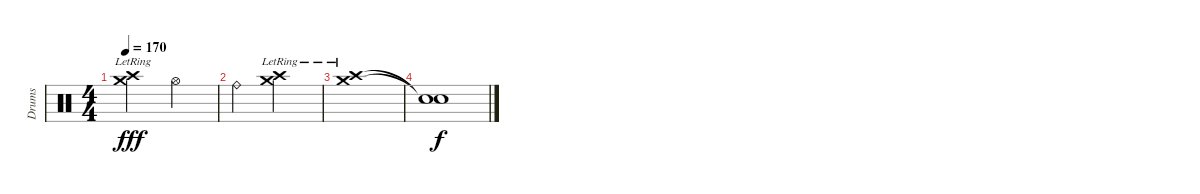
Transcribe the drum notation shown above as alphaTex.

\track ("Drums" "Drums") {instrument percussion}
\staff {score}
\articulation defaults
\ts (4 4)
\tempo 170
\clef neutral
\ks c
("Crash medium (hit)"{lr} "Crash high (hit)"{lr}).2{dy fff} "Hi-Hat (open)".2 |
"Ride (bell)".2 ("Crash medium (hit)"{lr} "Crash high (hit)"{lr}).2 |
("Crash medium (hit)"{lr} "Crash high (hit)"{lr}).1 |
("Snare (hit)"{t} "Snare (hit)"{t}).1{dy f}
